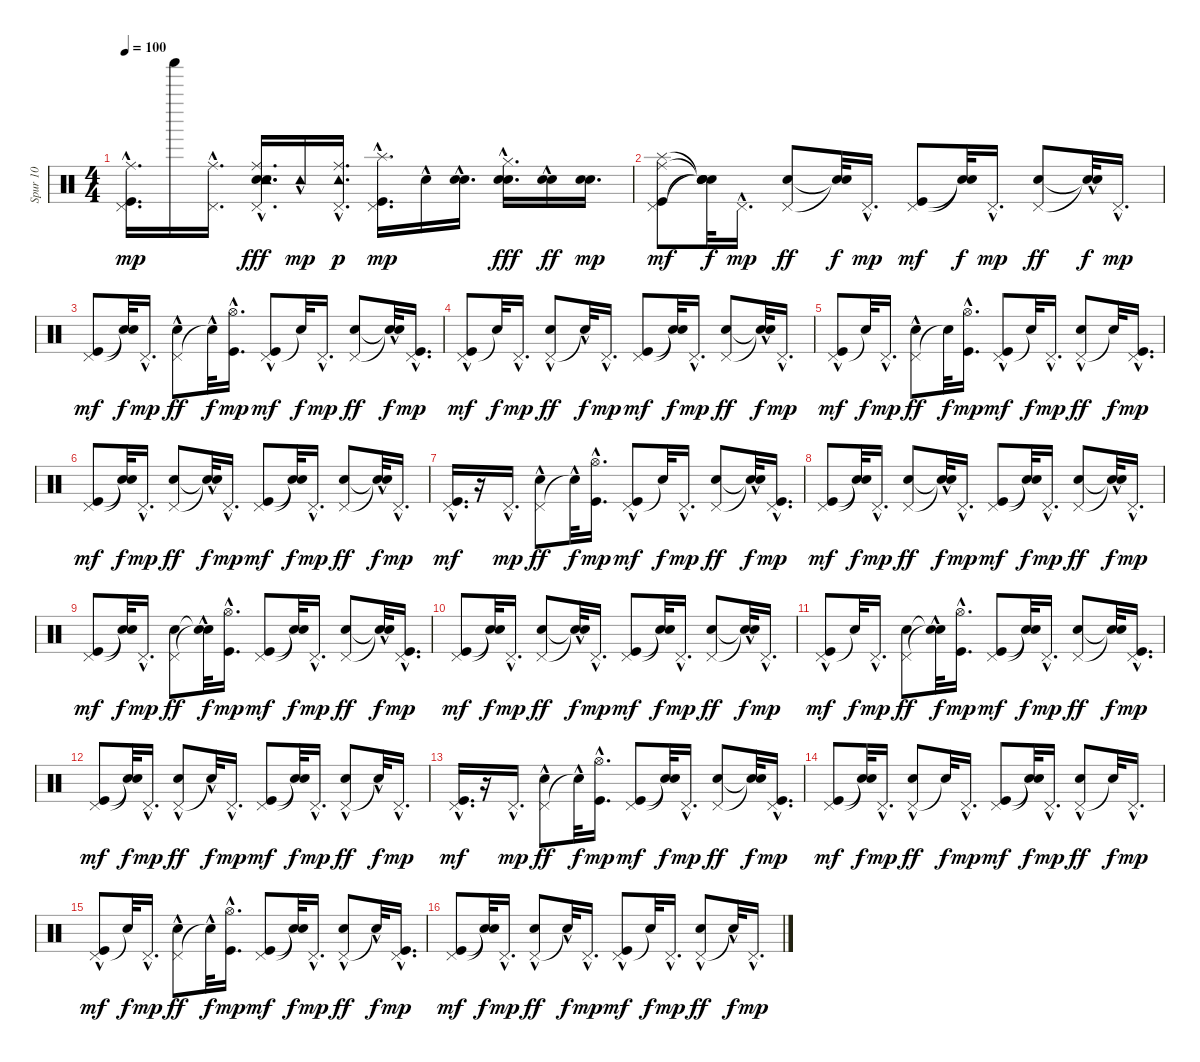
\track ("Spur 10" "Spur 10") {instrument percussion}
\staff {score}
\articulation defaults
\ts (4 4)
\tempo 100
\clef neutral
\ks c
("Pedal Hi-Hat (hit)" "Kick (hit)"{hac} "Ride (middle)").16{d dy mp} "Shaker (hit)".16 ("Pedal Hi-Hat (hit)"{hac} "Ride (middle)"{hac}).16{d} ("Hand Clap (hit)" "Pedal Hi-Hat (hit)" "Hand Clap (hit)" "Ride (middle)" "Tambourine (hit)"{hac}).16{d dy fff} "Tambourine (hit)"{hac}.16{dy mp} ("Pedal Hi-Hat (hit)"{hac} "Ride (middle)" "Tambourine (hit)"{hac}).16{d dy p} ("Pedal Hi-Hat (hit)" "Kick (hit)"{hac} "Splash (hit)"{hac}).16{d dy mp} "Hand Clap (hit)"{hac}.16 ("Hand Clap (hit)"{hac} "Hand Clap (hit)"{hac}).16{d} ("Hand Clap (hit)"{hac} "Hand Clap (hit)"{hac} "Hi-Hat (closed)").16{d dy fff} ("Hand Clap (hit)"{hac} "Hand Clap (hit)"{hac}).16{dy ff} ("Hand Clap (hit)" "Hand Clap (hit)").16{d dy mp} |
("Splash (hit)" "Ride (middle)" "Pedal Hi-Hat (hit)" "Kick (hit)").8{dy mf} ("Snare (hit)"{t} "Snare (hit)"{t} "Snare (hit)"{t} "Snare (hit)"{t}).32{dy f} "Pedal Hi-Hat (hit)"{hac}.16{d dy mp} ("Pedal Hi-Hat (hit)" "Hand Clap (hit)").8{dy ff} ("Snare (hit)"{t} "Snare (hit)"{t}).32{dy f} "Pedal Hi-Hat (hit)"{hac}.16{d dy mp} ("Pedal Hi-Hat (hit)" "Kick (hit)").8{dy mf} ("Snare (hit)"{t} "Snare (hit)"{t}).32{dy f} "Pedal Hi-Hat (hit)"{hac}.16{d dy mp} ("Pedal Hi-Hat (hit)" "Hand Clap (hit)").8{dy ff} ("Snare (hit)"{t} "Snare (hit)"{hac t}).32{dy f} "Pedal Hi-Hat (hit)"{hac}.16{d dy mp} |
("Pedal Hi-Hat (hit)" "Kick (hit)").8{dy mf} ("Snare (hit)"{t} "Snare (hit)"{t}).32{dy f} "Pedal Hi-Hat (hit)"{hac}.16{d dy mp} ("Pedal Hi-Hat (hit)"{hac} "Hand Clap (hit)").8{dy ff} "Snare (hit)"{hac t}.32{dy f} ("Hi-Hat (open)" "Kick (hit)"{hac}).16{d dy mp} ("Pedal Hi-Hat (hit)"{hac} "Kick (hit)").8{dy mf} "Snare (hit)"{t}.32{dy f} "Pedal Hi-Hat (hit)"{hac}.16{d dy mp} ("Pedal Hi-Hat (hit)" "Hand Clap (hit)").8{dy ff} ("Snare (hit)"{t} "Snare (hit)"{hac t}).32{dy f} ("Pedal Hi-Hat (hit)"{hac} "Kick (hit)"{hac}).16{d dy mp} |
("Pedal Hi-Hat (hit)" "Kick (hit)"{hac}).8{dy mf} "Snare (hit)"{t}.32{dy f} "Pedal Hi-Hat (hit)"{hac}.16{d dy mp} ("Pedal Hi-Hat (hit)"{hac} "Hand Clap (hit)").8{dy ff} "Snare (hit)"{hac t}.32{dy f} "Pedal Hi-Hat (hit)"{hac}.16{d dy mp} ("Pedal Hi-Hat (hit)" "Kick (hit)").8{dy mf} ("Snare (hit)"{t} "Snare (hit)"{t}).32{dy f} "Pedal Hi-Hat (hit)"{hac}.16{d dy mp} ("Pedal Hi-Hat (hit)" "Hand Clap (hit)").8{dy ff} ("Snare (hit)"{t} "Snare (hit)"{hac t}).32{dy f} "Pedal Hi-Hat (hit)"{hac}.16{d dy mp} |
("Pedal Hi-Hat (hit)" "Kick (hit)"{hac}).8{dy mf} "Snare (hit)"{t}.32{dy f} "Pedal Hi-Hat (hit)"{hac}.16{d dy mp} ("Pedal Hi-Hat (hit)"{hac} "Hand Clap (hit)").8{dy ff} "Snare (hit)"{t}.32{dy f} ("Hi-Hat (open)"{hac} "Kick (hit)"{hac}).16{d dy mp} ("Pedal Hi-Hat (hit)" "Kick (hit)"{hac}).8{dy mf} "Snare (hit)"{t}.32{dy f} "Pedal Hi-Hat (hit)"{hac}.16{d dy mp} ("Pedal Hi-Hat (hit)" "Hand Clap (hit)"{hac}).8{dy ff} "Snare (hit)"{t}.32{dy f} ("Pedal Hi-Hat (hit)"{hac} "Kick (hit)"{hac}).16{d dy mp} |
("Pedal Hi-Hat (hit)" "Kick (hit)").8{dy mf} ("Snare (hit)"{t} "Snare (hit)"{t}).32{dy f} "Pedal Hi-Hat (hit)"{hac}.16{d dy mp} ("Pedal Hi-Hat (hit)" "Hand Clap (hit)").8{dy ff} ("Snare (hit)"{t} "Snare (hit)"{hac t}).32{dy f} "Pedal Hi-Hat (hit)"{hac}.16{d dy mp} ("Pedal Hi-Hat (hit)" "Kick (hit)").8{dy mf} ("Snare (hit)"{t} "Snare (hit)"{t}).32{dy f} "Pedal Hi-Hat (hit)"{hac}.16{d dy mp} ("Pedal Hi-Hat (hit)" "Hand Clap (hit)").8{dy ff} ("Snare (hit)"{t} "Snare (hit)"{hac t}).32{dy f} "Pedal Hi-Hat (hit)"{hac}.16{d dy mp} |
("Pedal Hi-Hat (hit)"{hac} "Kick (hit)"{hac}).16{d dy mf} r.16 "Pedal Hi-Hat (hit)"{hac}.16{d dy mp} ("Pedal Hi-Hat (hit)"{hac} "Hand Clap (hit)").8{dy ff} "Snare (hit)"{hac t}.32{dy f} ("Hi-Hat (open)" "Kick (hit)"{hac}).16{d dy mp} ("Pedal Hi-Hat (hit)"{hac} "Kick (hit)").8{dy mf} "Snare (hit)"{t}.32{dy f} "Pedal Hi-Hat (hit)"{hac}.16{d dy mp} ("Pedal Hi-Hat (hit)" "Hand Clap (hit)").8{dy ff} ("Snare (hit)"{t} "Snare (hit)"{hac t}).32{dy f} ("Pedal Hi-Hat (hit)"{hac} "Kick (hit)"{hac}).16{d dy mp} |
("Pedal Hi-Hat (hit)" "Kick (hit)").8{dy mf} ("Snare (hit)"{t} "Snare (hit)"{t}).32{dy f} "Pedal Hi-Hat (hit)"{hac}.16{d dy mp} ("Pedal Hi-Hat (hit)" "Hand Clap (hit)").8{dy ff} ("Snare (hit)"{t} "Snare (hit)"{hac t}).32{dy f} "Pedal Hi-Hat (hit)"{hac}.16{d dy mp} ("Pedal Hi-Hat (hit)" "Kick (hit)").8{dy mf} ("Snare (hit)"{t} "Snare (hit)"{t}).32{dy f} "Pedal Hi-Hat (hit)"{hac}.16{d dy mp} ("Pedal Hi-Hat (hit)" "Hand Clap (hit)").8{dy ff} ("Snare (hit)"{t} "Snare (hit)"{hac t}).32{dy f} "Pedal Hi-Hat (hit)"{hac}.16{d dy mp} |
("Pedal Hi-Hat (hit)" "Kick (hit)").8{dy mf} ("Snare (hit)"{t} "Snare (hit)"{t}).32{dy f} "Pedal Hi-Hat (hit)"{hac}.16{d dy mp} ("Pedal Hi-Hat (hit)" "Hand Clap (hit)").8{dy ff} ("Snare (hit)"{t} "Snare (hit)"{hac t}).32{dy f} ("Hi-Hat (open)"{hac} "Kick (hit)"{hac}).16{d dy mp} ("Pedal Hi-Hat (hit)" "Kick (hit)").8{dy mf} ("Snare (hit)"{t} "Snare (hit)"{t}).32{dy f} "Pedal Hi-Hat (hit)"{hac}.16{d dy mp} ("Pedal Hi-Hat (hit)" "Hand Clap (hit)").8{dy ff} ("Snare (hit)"{t} "Snare (hit)"{hac t}).32{dy f} ("Pedal Hi-Hat (hit)"{hac} "Kick (hit)"{hac}).16{d dy mp} |
("Pedal Hi-Hat (hit)" "Kick (hit)").8{dy mf} ("Snare (hit)"{t} "Snare (hit)"{t}).32{dy f} "Pedal Hi-Hat (hit)"{hac}.16{d dy mp} ("Pedal Hi-Hat (hit)" "Hand Clap (hit)").8{dy ff} ("Snare (hit)"{t} "Snare (hit)"{hac t}).32{dy f} "Pedal Hi-Hat (hit)"{hac}.16{d dy mp} ("Pedal Hi-Hat (hit)" "Kick (hit)").8{dy mf} ("Snare (hit)"{t} "Snare (hit)"{t}).32{dy f} "Pedal Hi-Hat (hit)"{hac}.16{d dy mp} ("Pedal Hi-Hat (hit)" "Hand Clap (hit)").8{dy ff} ("Snare (hit)"{t} "Snare (hit)"{hac t}).32{dy f} "Pedal Hi-Hat (hit)"{hac}.16{d dy mp} |
("Pedal Hi-Hat (hit)" "Kick (hit)"{hac}).8{dy mf} "Snare (hit)"{t}.32{dy f} "Pedal Hi-Hat (hit)"{hac}.16{d dy mp} ("Pedal Hi-Hat (hit)" "Hand Clap (hit)").8{dy ff} ("Snare (hit)"{t} "Snare (hit)"{hac t}).32{dy f} ("Hi-Hat (open)" "Kick (hit)"{hac}).16{d dy mp} ("Pedal Hi-Hat (hit)" "Kick (hit)").8{dy mf} ("Snare (hit)"{t} "Snare (hit)"{t}).32{dy f} "Pedal Hi-Hat (hit)"{hac}.16{d dy mp} ("Pedal Hi-Hat (hit)" "Hand Clap (hit)").8{dy ff} ("Snare (hit)"{t} "Snare (hit)"{t}).32{dy f} ("Pedal Hi-Hat (hit)"{hac} "Kick (hit)"{hac}).16{d dy mp} |
("Pedal Hi-Hat (hit)" "Kick (hit)").8{dy mf} ("Snare (hit)"{t} "Snare (hit)"{t}).32{dy f} "Pedal Hi-Hat (hit)"{hac}.16{d dy mp} ("Pedal Hi-Hat (hit)"{hac} "Hand Clap (hit)").8{dy ff} "Snare (hit)"{hac t}.32{dy f} "Pedal Hi-Hat (hit)"{hac}.16{d dy mp} ("Pedal Hi-Hat (hit)" "Kick (hit)").8{dy mf} ("Snare (hit)"{t} "Snare (hit)"{t}).32{dy f} "Pedal Hi-Hat (hit)"{hac}.16{d dy mp} ("Pedal Hi-Hat (hit)"{hac} "Hand Clap (hit)").8{dy ff} "Snare (hit)"{hac t}.32{dy f} "Pedal Hi-Hat (hit)"{hac}.16{d dy mp} |
("Pedal Hi-Hat (hit)"{hac} "Kick (hit)"{hac}).16{d dy mf} r.16 "Pedal Hi-Hat (hit)"{hac}.16{d dy mp} ("Pedal Hi-Hat (hit)"{hac} "Hand Clap (hit)").8{dy ff} "Snare (hit)"{hac t}.32{dy f} ("Hi-Hat (open)"{hac} "Kick (hit)"{hac}).16{d dy mp} ("Pedal Hi-Hat (hit)" "Kick (hit)").8{dy mf} ("Snare (hit)"{t} "Snare (hit)"{t}).32{dy f} "Pedal Hi-Hat (hit)"{hac}.16{d dy mp} ("Pedal Hi-Hat (hit)" "Hand Clap (hit)").8{dy ff} ("Snare (hit)"{t} "Snare (hit)"{t}).32{dy f} ("Pedal Hi-Hat (hit)"{hac} "Kick (hit)"{hac}).16{d dy mp} |
("Pedal Hi-Hat (hit)" "Kick (hit)").8{dy mf} ("Snare (hit)"{t} "Snare (hit)"{t}).32{dy f} "Pedal Hi-Hat (hit)"{hac}.16{d dy mp} ("Pedal Hi-Hat (hit)" "Hand Clap (hit)"{hac}).8{dy ff} "Snare (hit)"{t}.32{dy f} "Pedal Hi-Hat (hit)"{hac}.16{d dy mp} ("Pedal Hi-Hat (hit)" "Kick (hit)").8{dy mf} ("Snare (hit)"{t} "Snare (hit)"{t}).32{dy f} "Pedal Hi-Hat (hit)"{hac}.16{d dy mp} ("Pedal Hi-Hat (hit)" "Hand Clap (hit)"{hac}).8{dy ff} "Snare (hit)"{t}.32{dy f} "Pedal Hi-Hat (hit)"{hac}.16{d dy mp} |
("Pedal Hi-Hat (hit)" "Kick (hit)"{hac}).8{dy mf} "Snare (hit)"{t}.32{dy f} "Pedal Hi-Hat (hit)"{hac}.16{d dy mp} ("Pedal Hi-Hat (hit)"{hac} "Hand Clap (hit)").8{dy ff} "Snare (hit)"{hac t}.32{dy f} ("Hi-Hat (open)" "Kick (hit)"{hac}).16{d dy mp} ("Pedal Hi-Hat (hit)" "Kick (hit)").8{dy mf} ("Snare (hit)"{t} "Snare (hit)"{t}).32{dy f} "Pedal Hi-Hat (hit)"{hac}.16{d dy mp} ("Pedal Hi-Hat (hit)"{hac} "Hand Clap (hit)").8{dy ff} "Snare (hit)"{hac t}.32{dy f} ("Pedal Hi-Hat (hit)"{hac} "Kick (hit)"{hac}).16{d dy mp} |
("Pedal Hi-Hat (hit)" "Kick (hit)").8{dy mf} ("Snare (hit)"{t} "Snare (hit)"{t}).32{dy f} "Pedal Hi-Hat (hit)"{hac}.16{d dy mp} ("Pedal Hi-Hat (hit)"{hac} "Hand Clap (hit)").8{dy ff} "Snare (hit)"{hac t}.32{dy f} "Pedal Hi-Hat (hit)"{hac}.16{d dy mp} ("Pedal Hi-Hat (hit)"{hac} "Kick (hit)").8{dy mf} "Snare (hit)"{t}.32{dy f} "Pedal Hi-Hat (hit)"{hac}.16{d dy mp} ("Pedal Hi-Hat (hit)"{hac} "Hand Clap (hit)").8{dy ff} "Snare (hit)"{hac t}.32{dy f} "Pedal Hi-Hat (hit)"{hac}.16{d dy mp}
